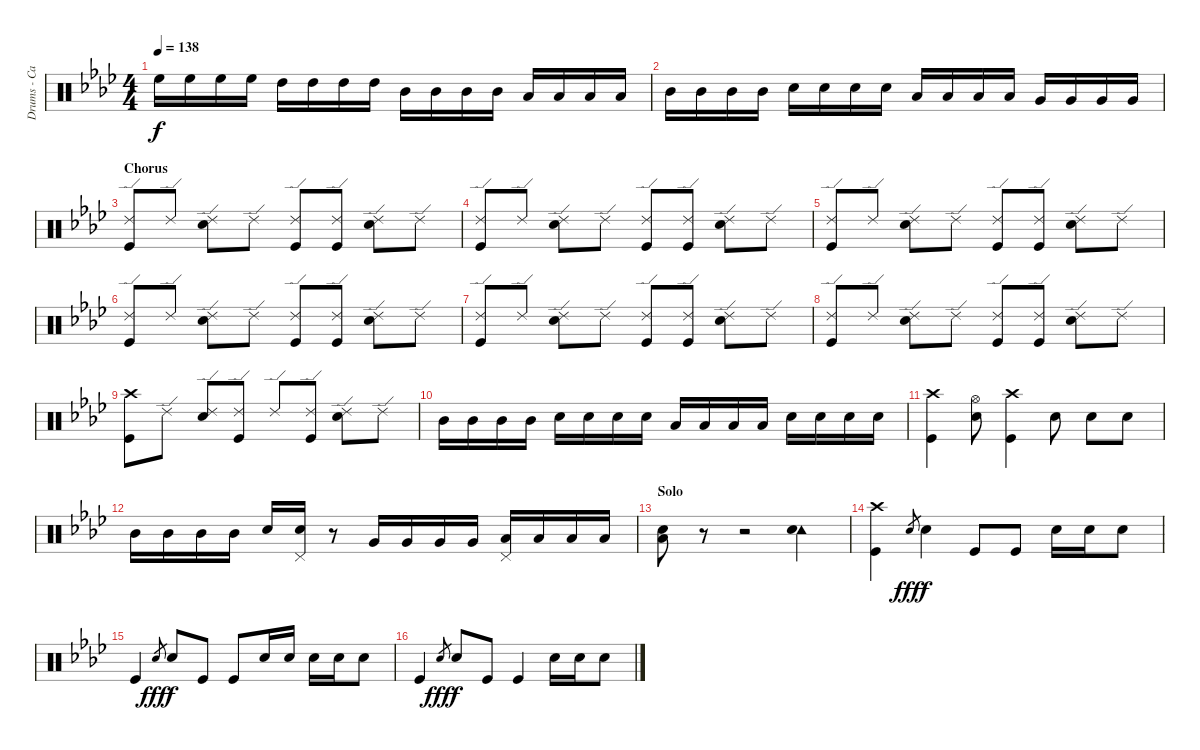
\track ("Drums - Carl Palmer" "Drums - Ca") {instrument percussion}
\staff {score}
\articulation defaults
\ts (4 4)
\tempo 138
\clef neutral
\ks ab "High Floor Tom (hit)".16{dy f} "High Floor Tom (hit)".16 "High Floor Tom (hit)".16 "High Floor Tom (hit)".16 "High Tom (hit)".16 "High Tom (hit)".16 "High Tom (hit)".16 "High Tom (hit)".16 "Mid Tom (hit)".16 "Mid Tom (hit)".16 "Mid Tom (hit)".16 "Mid Tom (hit)".16 "Low Tom (hit)".16 "Low Tom (hit)".16 "Low Tom (hit)".16 "Low Tom (hit)".16
|
"Mid Tom (hit)".16 "Mid Tom (hit)".16 "Mid Tom (hit)".16 "Mid Tom (hit)".16 "Snare (hit) 2".16 "Snare (hit) 2".16 "Snare (hit) 2".16 "Snare (hit) 2".16 "Low Tom (hit)".16 "Low Tom (hit)".16 "Low Tom (hit)".16 "Low Tom (hit)".16 "Very Low Tom (hit)".16 "Very Low Tom (hit)".16 "Very Low Tom (hit)".16 "Very Low Tom (hit)".16 |
\section ("" "Chorus")
("Ride (edge) 2" "Kick (hit)").8 "Ride (edge) 2".8 ("Ride (edge) 2" "Snare (hit) 2").8 "Ride (edge) 2".8 ("Ride (edge) 2" "Kick (hit)").8 ("Ride (edge) 2" "Kick (hit)").8 ("Ride (edge) 2" "Snare (hit) 2").8 "Ride (edge) 2".8 |
("Ride (edge) 2" "Kick (hit)").8 "Ride (edge) 2".8 ("Ride (edge) 2" "Snare (hit) 2").8 "Ride (edge) 2".8 ("Ride (edge) 2" "Kick (hit)").8 ("Ride (edge) 2" "Kick (hit)").8 ("Ride (edge) 2" "Snare (hit) 2").8 "Ride (edge) 2".8 |
("Ride (edge) 2" "Kick (hit)").8 "Ride (edge) 2".8 ("Ride (edge) 2" "Snare (hit) 2").8 "Ride (edge) 2".8 ("Ride (edge) 2" "Kick (hit)").8 ("Ride (edge) 2" "Kick (hit)").8 ("Ride (edge) 2" "Snare (hit) 2").8 "Ride (edge) 2".8 |
("Ride (edge) 2" "Kick (hit)").8 "Ride (edge) 2".8 ("Ride (edge) 2" "Snare (hit) 2").8 "Ride (edge) 2".8 ("Ride (edge) 2" "Kick (hit)").8 ("Ride (edge) 2" "Kick (hit)").8 ("Ride (edge) 2" "Snare (hit) 2").8 "Ride (edge) 2".8 |
("Ride (edge) 2" "Kick (hit)").8 "Ride (edge) 2".8 ("Ride (edge) 2" "Snare (hit) 2").8 "Ride (edge) 2".8 ("Ride (edge) 2" "Kick (hit)").8 ("Ride (edge) 2" "Kick (hit)").8 ("Ride (edge) 2" "Snare (hit) 2").8 "Ride (edge) 2".8 |
("Ride (edge) 2" "Kick (hit)").8 "Ride (edge) 2".8 ("Ride (edge) 2" "Snare (hit) 2").8 "Ride (edge) 2".8 ("Ride (edge) 2" "Kick (hit)").8 ("Ride (edge) 2" "Kick (hit)").8 ("Ride (edge) 2" "Snare (hit) 2").8 "Ride (edge) 2".8 |
("Crash high (hit)" "Kick (hit)").8 "Ride (edge) 2".8 ("Ride (edge) 2" "Snare (hit) 2").8 ("Ride (edge) 2" "Kick (hit)").8 "Ride (edge) 2".8 ("Ride (edge) 2" "Kick (hit)").8 ("Ride (edge) 2" "Snare (hit) 2").8 "Ride (edge) 2".8 |
"Mid Tom (hit)".16 "Mid Tom (hit)".16 "Mid Tom (hit)".16 "Mid Tom (hit)".16 "Snare (hit) 2".16 "Snare (hit) 2".16 "Snare (hit) 2".16 "Snare (hit) 2".16 "Low Tom (hit)".16 "Low Tom (hit)".16 "Low Tom (hit)".16 "Low Tom (hit)".16 "Snare (hit) 2".16 "Snare (hit) 2".16 "Snare (hit) 2".16 "Snare (hit) 2".16 |
("Crash high (hit)" "Kick (hit)").4 ("Hi-Hat (open)" "Snare (hit) 2").8 ("Crash high (hit)" "Kick (hit)").4 "Snare (hit) 2".8 "Snare (hit) 2".8 "Snare (hit) 2".8 |
"Mid Tom (hit)".16 "Mid Tom (hit)".16 "Mid Tom (hit)".16 "Mid Tom (hit)".16 "Snare (hit) 2".16 ("Snare (hit) 2" "Pedal Hi-Hat (hit)").16 r.8 "Very Low Tom (hit)".16 "Very Low Tom (hit)".16 "Very Low Tom (hit)".16 "Very Low Tom (hit)".16 ("Low Floor Tom (hit)" "Pedal Hi-Hat (hit)").16 "Low Floor Tom (hit)".16 "Low Floor Tom (hit)".16 "Low Floor Tom (hit)".16 |
\section ("" "Solo")
("Low Floor Tom (hit)" "Snare (hit) 2").8 r.8 r.2 ("Tambourine (hit)" "Snare (hit) 2").4 |
("Crash high (hit)" "Kick (hit)").4 "Snare (hit) 2".8{gr dy fff} "Snare (hit) 2".4{dy f} "Kick (hit)".8 "Kick (hit)".8 "Snare (hit) 2".16 "Snare (hit) 2".16 "Snare (hit) 2".8 |
"Kick (hit)".4 "Snare (hit) 2".8{gr dy fff} "Snare (hit) 2".8{dy f} "Kick (hit)".8 "Kick (hit)".8 "Snare (hit) 2".16 "Snare (hit) 2".16 "Snare (hit) 2".16 "Snare (hit) 2".16 "Snare (hit) 2".8 |
"Kick (hit)".4 "Snare (hit) 2".8{gr dy fff} "Snare (hit) 2".8{dy f} "Kick (hit)".8 "Kick (hit)".4 "Snare (hit) 2".16 "Snare (hit) 2".16 "Snare (hit) 2".8
